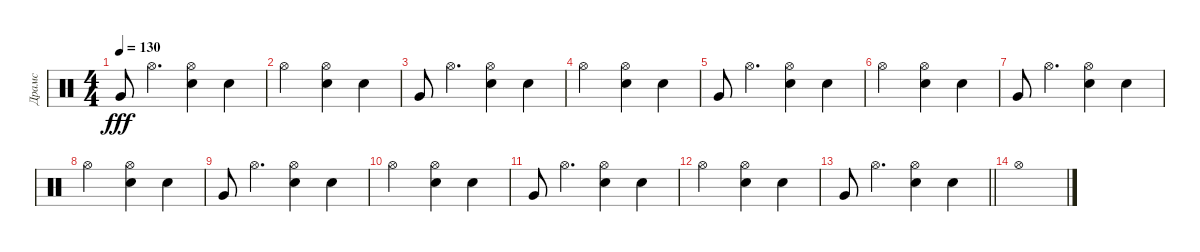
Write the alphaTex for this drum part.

\track ("Драмс" "Драмс") {instrument percussion}
\staff {score}
\articulation defaults
\ts (4 4)
\tempo 130
\clef neutral
\ks c "Very Low Tom (hit)".8{dy fff} "Hi-Hat (open)".4{d}
("Hi-Hat (open)" "Snare (hit) 2").4 "Snare (hit) 2".4 |
"Hi-Hat (open)".2 ("Hi-Hat (open)" "Snare (hit) 2").4 "Snare (hit) 2".4 |
"Very Low Tom (hit)".8 "Hi-Hat (open)".4{d} ("Hi-Hat (open)" "Snare (hit) 2").4 "Snare (hit) 2".4 |
"Hi-Hat (open)".2 ("Hi-Hat (open)" "Snare (hit) 2").4 "Snare (hit) 2".4 |
"Very Low Tom (hit)".8 "Hi-Hat (open)".4{d} ("Hi-Hat (open)" "Snare (hit) 2").4 "Snare (hit) 2".4 |
"Hi-Hat (open)".2 ("Hi-Hat (open)" "Snare (hit) 2").4 "Snare (hit) 2".4 |
"Very Low Tom (hit)".8 "Hi-Hat (open)".4{d} ("Hi-Hat (open)" "Snare (hit) 2").4 "Snare (hit) 2".4 |
"Hi-Hat (open)".2 ("Hi-Hat (open)" "Snare (hit) 2").4 "Snare (hit) 2".4 |
"Very Low Tom (hit)".8 "Hi-Hat (open)".4{d} ("Hi-Hat (open)" "Snare (hit) 2").4 "Snare (hit) 2".4 |
"Hi-Hat (open)".2 ("Hi-Hat (open)" "Snare (hit) 2").4 "Snare (hit) 2".4 |
"Very Low Tom (hit)".8 "Hi-Hat (open)".4{d} ("Hi-Hat (open)" "Snare (hit) 2").4 "Snare (hit) 2".4 |
"Hi-Hat (open)".2 ("Hi-Hat (open)" "Snare (hit) 2").4 "Snare (hit) 2".4 |
\barLineRight lightlight "Very Low Tom (hit)".8 "Hi-Hat (open)".4{d}
("Hi-Hat (open)" "Snare (hit) 2").4 "Snare (hit) 2".4 |
"Hi-Hat (open)".1
